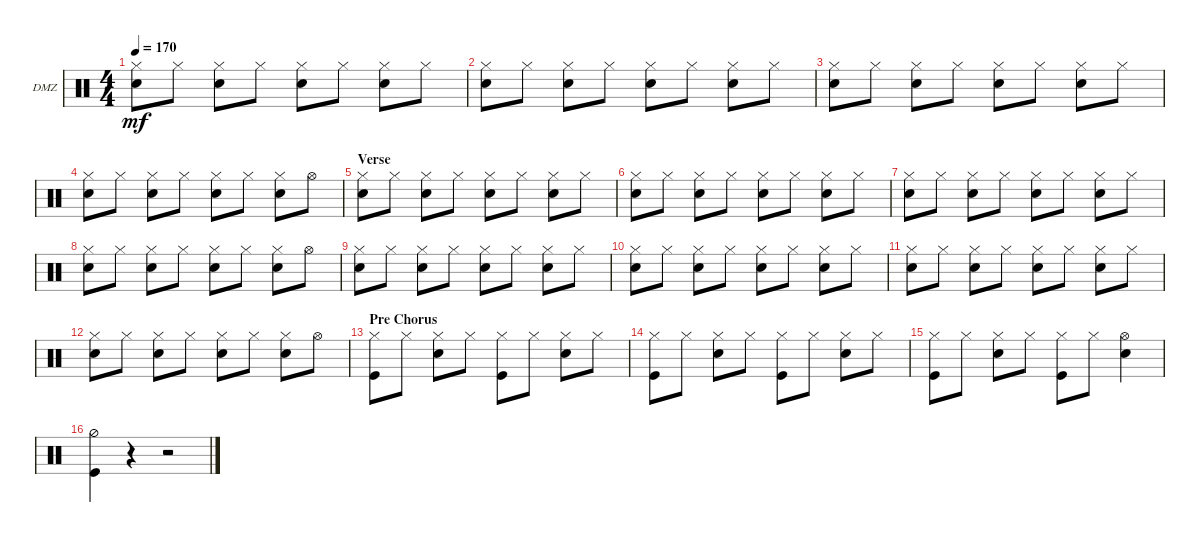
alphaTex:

\defaultSystemsLayout 4
\bracketExtendMode groupsimilarinstruments
\firstSystemTrackNameOrientation horizontal
\otherSystemsTrackNameOrientation horizontal
\track ("Drumz" "DMZ") {instrument percussion}
\staff {score}
\articulation defaults
\ts (4 4)
\tempo 170
\clef neutral
\ks c
("Hi-Hat (closed)" "Snare (hit) 2").8{dy mf} "Hi-Hat (closed)".8 ("Hi-Hat (closed)" "Snare (hit) 2").8 "Hi-Hat (closed)".8 ("Hi-Hat (closed)" "Snare (hit) 2").8 "Hi-Hat (closed)".8 ("Hi-Hat (closed)" "Snare (hit) 2").8 "Hi-Hat (closed)".8 |
("Hi-Hat (closed)" "Snare (hit) 2").8 "Hi-Hat (closed)".8 ("Hi-Hat (closed)" "Snare (hit) 2").8 "Hi-Hat (closed)".8 ("Hi-Hat (closed)" "Snare (hit) 2").8 "Hi-Hat (closed)".8 ("Hi-Hat (closed)" "Snare (hit) 2").8 "Hi-Hat (closed)".8 |
("Hi-Hat (closed)" "Snare (hit) 2").8 "Hi-Hat (closed)".8 ("Hi-Hat (closed)" "Snare (hit) 2").8 "Hi-Hat (closed)".8 ("Hi-Hat (closed)" "Snare (hit) 2").8 "Hi-Hat (closed)".8 ("Hi-Hat (closed)" "Snare (hit) 2").8 "Hi-Hat (closed)".8 |
("Hi-Hat (closed)" "Snare (hit) 2").8 "Hi-Hat (closed)".8 ("Hi-Hat (closed)" "Snare (hit) 2").8 "Hi-Hat (closed)".8 ("Hi-Hat (closed)" "Snare (hit) 2").8 "Hi-Hat (closed)".8 ("Hi-Hat (closed)" "Snare (hit) 2").8 "Hi-Hat (open)".8 |
\section ("" "Verse")
("Hi-Hat (closed)" "Snare (hit) 2").8 "Hi-Hat (closed)".8 ("Hi-Hat (closed)" "Snare (hit) 2").8 "Hi-Hat (closed)".8 ("Hi-Hat (closed)" "Snare (hit) 2").8 "Hi-Hat (closed)".8 ("Hi-Hat (closed)" "Snare (hit) 2").8 "Hi-Hat (closed)".8 |
("Hi-Hat (closed)" "Snare (hit) 2").8 "Hi-Hat (closed)".8 ("Hi-Hat (closed)" "Snare (hit) 2").8 "Hi-Hat (closed)".8 ("Hi-Hat (closed)" "Snare (hit) 2").8 "Hi-Hat (closed)".8 ("Hi-Hat (closed)" "Snare (hit) 2").8 "Hi-Hat (closed)".8 |
("Hi-Hat (closed)" "Snare (hit) 2").8 "Hi-Hat (closed)".8 ("Hi-Hat (closed)" "Snare (hit) 2").8 "Hi-Hat (closed)".8 ("Hi-Hat (closed)" "Snare (hit) 2").8 "Hi-Hat (closed)".8 ("Hi-Hat (closed)" "Snare (hit) 2").8 "Hi-Hat (closed)".8 |
("Hi-Hat (closed)" "Snare (hit) 2").8 "Hi-Hat (closed)".8 ("Hi-Hat (closed)" "Snare (hit) 2").8 "Hi-Hat (closed)".8 ("Hi-Hat (closed)" "Snare (hit) 2").8 "Hi-Hat (closed)".8 ("Hi-Hat (closed)" "Snare (hit) 2").8 "Hi-Hat (open)".8 |
("Hi-Hat (closed)" "Snare (hit) 2").8 "Hi-Hat (closed)".8 ("Hi-Hat (closed)" "Snare (hit) 2").8 "Hi-Hat (closed)".8 ("Hi-Hat (closed)" "Snare (hit) 2").8 "Hi-Hat (closed)".8 ("Hi-Hat (closed)" "Snare (hit) 2").8 "Hi-Hat (closed)".8 |
("Hi-Hat (closed)" "Snare (hit) 2").8 "Hi-Hat (closed)".8 ("Hi-Hat (closed)" "Snare (hit) 2").8 "Hi-Hat (closed)".8 ("Hi-Hat (closed)" "Snare (hit) 2").8 "Hi-Hat (closed)".8 ("Hi-Hat (closed)" "Snare (hit) 2").8 "Hi-Hat (closed)".8 |
("Hi-Hat (closed)" "Snare (hit) 2").8 "Hi-Hat (closed)".8 ("Hi-Hat (closed)" "Snare (hit) 2").8 "Hi-Hat (closed)".8 ("Hi-Hat (closed)" "Snare (hit) 2").8 "Hi-Hat (closed)".8 ("Hi-Hat (closed)" "Snare (hit) 2").8 "Hi-Hat (closed)".8 |
("Hi-Hat (closed)" "Snare (hit) 2").8 "Hi-Hat (closed)".8 ("Hi-Hat (closed)" "Snare (hit) 2").8 "Hi-Hat (closed)".8 ("Hi-Hat (closed)" "Snare (hit) 2").8 "Hi-Hat (closed)".8 ("Hi-Hat (closed)" "Snare (hit) 2").8 "Hi-Hat (open)".8 |
\section ("" "Pre Chorus")
("Hi-Hat (closed)" "Kick (hit)").8 "Hi-Hat (closed)".8 ("Hi-Hat (closed)" "Snare (hit) 2").8 "Hi-Hat (closed)".8 ("Hi-Hat (closed)" "Kick (hit)").8 "Hi-Hat (closed)".8 ("Hi-Hat (closed)" "Snare (hit) 2").8 "Hi-Hat (closed)".8 |
("Hi-Hat (closed)" "Kick (hit)").8 "Hi-Hat (closed)".8 ("Hi-Hat (closed)" "Snare (hit) 2").8 "Hi-Hat (closed)".8 ("Hi-Hat (closed)" "Kick (hit)").8 "Hi-Hat (closed)".8 ("Hi-Hat (closed)" "Snare (hit) 2").8 "Hi-Hat (closed)".8 |
("Hi-Hat (closed)" "Kick (hit)").8 "Hi-Hat (closed)".8 ("Hi-Hat (closed)" "Snare (hit) 2").8 "Hi-Hat (closed)".8 ("Hi-Hat (closed)" "Kick (hit)").8 "Hi-Hat (closed)".8 ("Hi-Hat (open)" "Snare (hit) 2").4 |
("Kick (hit)" "Hi-Hat (half)").4 r.4 r.2
